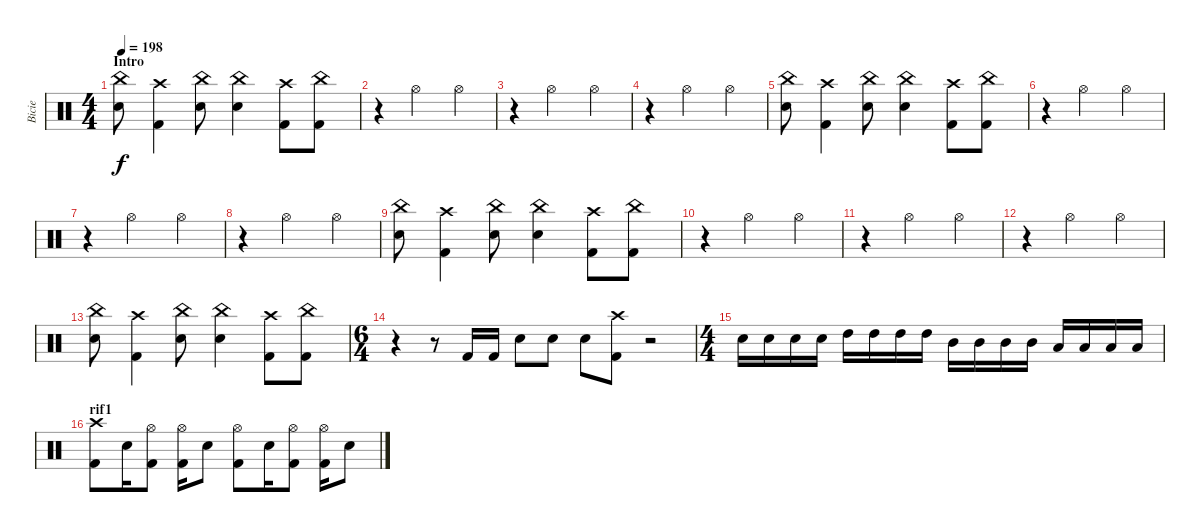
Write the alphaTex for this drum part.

\track ("Bicie" "Bicie") {instrument percussion}
\staff {score}
\articulation defaults
\ts (4 4)
\section ("" "Intro")
\tempo 198
\clef neutral
\ks c
("China (hit)" "Electric Snare (hit)").8{dy f} ("Crash high (hit)" "Kick (hit) 2").4 ("China (hit)" "Electric Snare (hit)").8 ("China (hit)" "Electric Snare (hit)").4 ("Crash high (hit)" "Kick (hit) 2").8 ("China (hit)" "Kick (hit) 2").8 |
r.4 "Hi-Hat (open)".2 "Hi-Hat (open)".4 |
r.4 "Hi-Hat (open)".2 "Hi-Hat (open)".4 |
r.4 "Hi-Hat (open)".2 "Hi-Hat (open)".4 |
("China (hit)" "Electric Snare (hit)").8 ("Crash high (hit)" "Kick (hit) 2").4 ("China (hit)" "Electric Snare (hit)").8 ("China (hit)" "Electric Snare (hit)").4 ("Crash high (hit)" "Kick (hit) 2").8 ("China (hit)" "Kick (hit) 2").8 |
r.4 "Hi-Hat (open)".2 "Hi-Hat (open)".4 |
r.4 "Hi-Hat (open)".2 "Hi-Hat (open)".4 |
r.4 "Hi-Hat (open)".2 "Hi-Hat (open)".4 |
("China (hit)" "Electric Snare (hit)").8 ("Crash high (hit)" "Kick (hit) 2").4 ("China (hit)" "Electric Snare (hit)").8 ("China (hit)" "Electric Snare (hit)").4 ("Crash high (hit)" "Kick (hit) 2").8 ("China (hit)" "Kick (hit) 2").8 |
r.4 "Hi-Hat (open)".2 "Hi-Hat (open)".4 |
r.4 "Hi-Hat (open)".2 "Hi-Hat (open)".4 |
r.4 "Hi-Hat (open)".2 "Hi-Hat (open)".4 |
("China (hit)" "Electric Snare (hit)").8 ("Crash high (hit)" "Kick (hit) 2").4 ("China (hit)" "Electric Snare (hit)").8 ("China (hit)" "Electric Snare (hit)").4 ("Crash high (hit)" "Kick (hit) 2").8 ("China (hit)" "Kick (hit) 2").8 |
\ts (6 4)
r.4 r.8 "Kick (hit) 2".16 "Kick (hit) 2".16 "Electric Snare (hit)".8 "Electric Snare (hit)".8 "Electric Snare (hit)".8 ("Crash high (hit)" "Kick (hit) 2").8 r.2 |
\ts (4 4)
"Electric Snare (hit)".16 "Electric Snare (hit)".16 "Electric Snare (hit)".16 "Electric Snare (hit)".16 "High Tom (hit)".16 "High Tom (hit)".16 "High Tom (hit)".16 "High Tom (hit)".16 "Mid Tom (hit)".16 "Mid Tom (hit)".16 "Mid Tom (hit)".16 "Mid Tom (hit)".16 "Low Tom (hit)".16 "Low Tom (hit)".16 "Low Tom (hit)".16 "Low Tom (hit)".16 |
\section ("" "rif1")
("Crash high (hit)" "Kick (hit) 2").8 "Electric Snare (hit)".16 ("Hi-Hat (open)" "Kick (hit) 2").8 ("Hi-Hat (open)" "Kick (hit) 2").16 "Electric Snare (hit)".8 ("Hi-Hat (open)" "Kick (hit) 2").8 "Electric Snare (hit)".16 ("Hi-Hat (open)" "Kick (hit) 2").8 ("Hi-Hat (open)" "Kick (hit) 2").16 "Electric Snare (hit)".8
